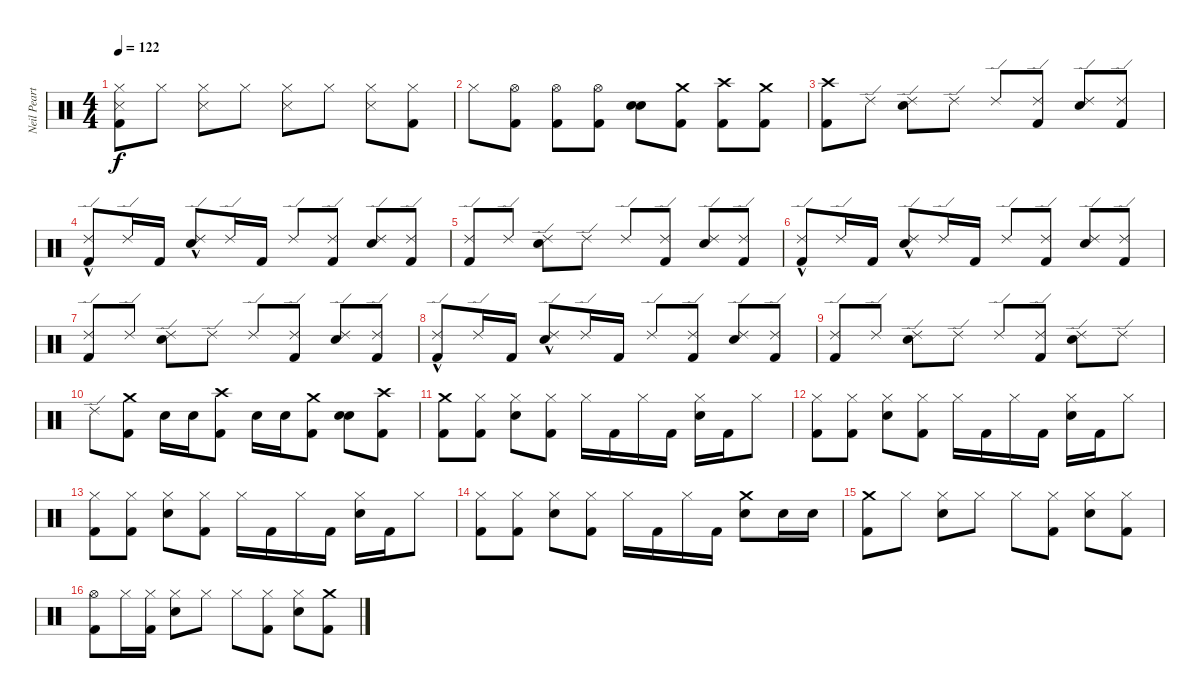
\track ("Neil Peart" "Neil Peart") {instrument percussion}
\staff {score}
\articulation defaults
\ts (4 4)
\tempo 122
\clef neutral
\ks c
("Hi-Hat (closed)" "Kick (hit) 2" "Snare (side stick) 3").8{dy f} "Hi-Hat (closed)".8 ("Snare (side stick) 3" "Hi-Hat (closed)").8 "Hi-Hat (closed)".8 ("Hi-Hat (closed)" "Snare (side stick) 3").8 "Hi-Hat (closed)".8 ("Snare (side stick) 3" "Hi-Hat (closed)").8 ("Hi-Hat (closed)" "Kick (hit) 2").8 |
"Hi-Hat (closed)".8 ("Hi-Hat (open)" "Kick (hit) 2").8 ("Kick (hit) 2" "Hi-Hat (open)").8 ("Kick (hit) 2" "Hi-Hat (open)").8 ("Snare (hit) 2" "Snare (hit) 2").8 ("Kick (hit) 2" "Crash medium (hit)").8 ("Crash high (hit)" "Kick (hit) 2").8 ("Crash medium (hit)" "Kick (hit) 2").8 |
("Kick (hit) 2" "Crash high (hit)").8 "Ride (edge) 2".8 ("Snare (hit) 2" "Ride (edge) 2").8 "Ride (edge) 2".8 "Ride (edge) 2".8 ("Ride (edge) 2" "Kick (hit) 2").8 ("Snare (hit) 2" "Ride (edge) 2").8 ("Ride (edge) 2" "Kick (hit) 2").8 |
("Ride (edge) 2" "Kick (hit) 2"{hac}).8 "Ride (edge) 2".16 "Kick (hit) 2".16 ("Ride (edge) 2" "Snare (hit) 2"{hac}).8 "Ride (edge) 2".16 "Kick (hit) 2".16 "Ride (edge) 2".8 ("Kick (hit) 2" "Ride (edge) 2").8 ("Ride (edge) 2" "Snare (hit) 2").8 ("Ride (edge) 2" "Kick (hit) 2").8 |
("Ride (edge) 2" "Kick (hit) 2").8 "Ride (edge) 2".8 ("Ride (edge) 2" "Snare (hit) 2").8 "Ride (edge) 2".8 "Ride (edge) 2".8 ("Kick (hit) 2" "Ride (edge) 2").8 ("Snare (hit) 2" "Ride (edge) 2").8 ("Ride (edge) 2" "Kick (hit) 2").8 |
("Kick (hit) 2"{hac} "Ride (edge) 2").8 "Ride (edge) 2".16 "Kick (hit) 2".16 ("Ride (edge) 2" "Snare (hit) 2"{hac}).8 "Ride (edge) 2".16 "Kick (hit) 2".16 "Ride (edge) 2".8 ("Kick (hit) 2" "Ride (edge) 2").8 ("Snare (hit) 2" "Ride (edge) 2").8 ("Kick (hit) 2" "Ride (edge) 2").8 |
("Kick (hit) 2" "Ride (edge) 2").8 "Ride (edge) 2".8 ("Snare (hit) 2" "Ride (edge) 2").8 "Ride (edge) 2".8 "Ride (edge) 2".8 ("Kick (hit) 2" "Ride (edge) 2").8 ("Ride (edge) 2" "Snare (hit) 2").8 ("Kick (hit) 2" "Ride (edge) 2").8 |
("Ride (edge) 2" "Kick (hit) 2"{hac}).8 "Ride (edge) 2".16 "Kick (hit) 2".16 ("Ride (edge) 2" "Snare (hit) 2"{hac}).8 "Ride (edge) 2".16 "Kick (hit) 2".16 "Ride (edge) 2".8 ("Kick (hit) 2" "Ride (edge) 2").8 ("Ride (edge) 2" "Snare (hit) 2").8 ("Ride (edge) 2" "Kick (hit) 2").8 |
("Kick (hit) 2" "Ride (edge) 2").8 "Ride (edge) 2".8 ("Snare (hit) 2" "Ride (edge) 2").8 "Ride (edge) 2".8 "Ride (edge) 2".8 ("Ride (edge) 2" "Kick (hit) 2").8 ("Ride (edge) 2" "Snare (hit) 2").8 "Ride (edge) 2".8 |
"Ride (edge) 2".8 ("Kick (hit) 2" "Crash medium (hit)").8 "Snare (hit) 2".16 "Snare (hit) 2".16 ("Crash high (hit)" "Kick (hit) 2").8 "Snare (hit) 2".16 "Snare (hit) 2".16 ("Kick (hit) 2" "Crash medium (hit)").8 ("Snare (hit) 2" "Snare (hit) 2").8 ("Crash high (hit)" "Kick (hit) 2").8 |
("Crash medium (hit)" "Kick (hit) 2").8 ("Hi-Hat (closed)" "Kick (hit) 2").8 ("Snare (hit) 2" "Hi-Hat (closed)").8 ("Hi-Hat (closed)" "Kick (hit) 2").8 "Hi-Hat (closed)".16 "Kick (hit) 2".16 "Hi-Hat (closed)".16 "Kick (hit) 2".16 ("Snare (hit) 2" "Hi-Hat (closed)").16 "Kick (hit) 2".16 "Hi-Hat (closed)".8 |
("Hi-Hat (closed)" "Kick (hit) 2").8 ("Kick (hit) 2" "Hi-Hat (closed)").8 ("Hi-Hat (closed)" "Snare (hit) 2").8 ("Kick (hit) 2" "Hi-Hat (closed)").8 "Hi-Hat (closed)".16 "Kick (hit) 2".16 "Hi-Hat (closed)".16 "Kick (hit) 2".16 ("Snare (hit) 2" "Hi-Hat (closed)").16 "Kick (hit) 2".16 "Hi-Hat (closed)".8 |
("Hi-Hat (closed)" "Kick (hit) 2").8 ("Kick (hit) 2" "Hi-Hat (closed)").8 ("Snare (hit) 2" "Hi-Hat (closed)").8 ("Kick (hit) 2" "Hi-Hat (closed)").8 "Hi-Hat (closed)".16 "Kick (hit) 2".16 "Hi-Hat (closed)".16 "Kick (hit) 2".16 ("Hi-Hat (closed)" "Snare (hit) 2").16 "Kick (hit) 2".16 "Hi-Hat (closed)".8 |
("Hi-Hat (closed)" "Kick (hit) 2").8 ("Kick (hit) 2" "Hi-Hat (closed)").8 ("Snare (hit) 2" "Hi-Hat (closed)").8 ("Kick (hit) 2" "Hi-Hat (closed)").8 "Hi-Hat (closed)".16 "Kick (hit) 2".16 "Hi-Hat (closed)".16 "Kick (hit) 2".16 ("Snare (hit) 2" "Crash medium (hit)").8 "Snare (hit) 2".16 "Snare (hit) 2".16 |
("Crash medium (hit)" "Kick (hit) 2").8 "Hi-Hat (closed)".8 ("Snare (hit) 2" "Hi-Hat (closed)").8 "Hi-Hat (closed)".8 "Hi-Hat (closed)".8 ("Hi-Hat (closed)" "Kick (hit) 2").8 ("Snare (hit) 2" "Hi-Hat (closed)").8 ("Kick (hit) 2" "Hi-Hat (closed)").8 |
("Hi-Hat (open)" "Kick (hit) 2").8 "Hi-Hat (closed)".16 ("Hi-Hat (closed)" "Kick (hit) 2").16 ("Snare (hit) 2" "Hi-Hat (closed)").8 "Hi-Hat (closed)".8 "Hi-Hat (closed)".8 ("Hi-Hat (closed)" "Kick (hit) 2").8 ("Hi-Hat (closed)" "Snare (hit) 2").8 ("Crash medium (hit)" "Kick (hit) 2").8
